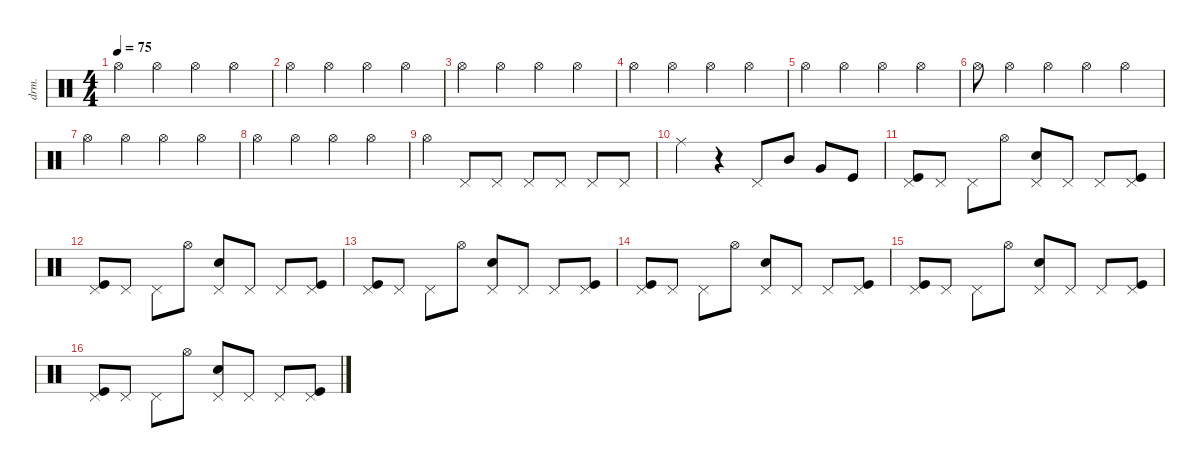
\defaultSystemsLayout 4
\hideDynamics
\bracketExtendMode nobrackets
\otherSystemsTrackNameOrientation horizontal
\track ("Drums" "drm.") {instrument percussion}
\staff {score}
\articulation defaults
\ts (4 4)
\tempo 75
\clef neutral
\ks c "Hi-Hat (open)".4{dy f beam Down} "Hi-Hat (open)".4{beam Down} "Hi-Hat (open)".4{beam Down} "Hi-Hat (open)".4{beam Down}
|
"Hi-Hat (open)".4{beam Down} "Hi-Hat (open)".4{beam Down} "Hi-Hat (open)".4{beam Down} "Hi-Hat (open)".4{beam Down} |
"Hi-Hat (open)".4{beam Down} "Hi-Hat (open)".4{beam Down} "Hi-Hat (open)".4{beam Down} "Hi-Hat (open)".4{beam Down} |
"Hi-Hat (open)".4{beam Down} "Hi-Hat (open)".4{beam Down} "Hi-Hat (open)".4{beam Down} "Hi-Hat (open)".4{beam Down} |
"Hi-Hat (open)".4{beam Down} "Hi-Hat (open)".4{beam Down} "Hi-Hat (open)".4{beam Down} "Hi-Hat (open)".4{beam Down} |
"Hi-Hat (open)".8{beam Down} "Hi-Hat (open)".4{beam Down} "Hi-Hat (open)".4{beam Down} "Hi-Hat (open)".4{beam Down} "Hi-Hat (open)".4{beam Down} |
"Hi-Hat (open)".4{beam Down} "Hi-Hat (open)".4{beam Down} "Hi-Hat (open)".4{beam Down} "Hi-Hat (open)".4{beam Down} |
"Hi-Hat (open)".4{beam Down} "Hi-Hat (open)".4{beam Down} "Hi-Hat (open)".4{beam Down} "Hi-Hat (open)".4{beam Down} |
"Hi-Hat (open)".4{beam Down} "Pedal Hi-Hat (hit)".8{beam Up} "Pedal Hi-Hat (hit)".8{beam Up} "Pedal Hi-Hat (hit)".8{beam Up} "Pedal Hi-Hat (hit)".8{beam Up} "Pedal Hi-Hat (hit)".8{beam Up} "Pedal Hi-Hat (hit)".8{beam Up} |
"Ride (middle)".4{beam Down} r.4{beam Down} "Pedal Hi-Hat (hit)".8{beam Up} "Mid Tom (hit)".8{beam Up} "Very Low Tom (hit)".8{beam Up} "Kick (hit)".8{beam Up} |
("Pedal Hi-Hat (hit)" "Kick (hit)").8{beam Up} "Pedal Hi-Hat (hit)".8{beam Up} "Pedal Hi-Hat (hit)".8{beam Down} "Hi-Hat (open)".8{beam Down} ("Snare (hit) 2" "Pedal Hi-Hat (hit)").8{beam Up} "Pedal Hi-Hat (hit)".8{beam Up} "Pedal Hi-Hat (hit)".8{beam Up} ("Kick (hit)" "Pedal Hi-Hat (hit)").8{beam Up} |
("Pedal Hi-Hat (hit)" "Kick (hit)").8{beam Up} "Pedal Hi-Hat (hit)".8{beam Up} "Pedal Hi-Hat (hit)".8{beam Down} "Hi-Hat (open)".8{beam Down} ("Snare (hit) 2" "Pedal Hi-Hat (hit)").8{beam Up} "Pedal Hi-Hat (hit)".8{beam Up} "Pedal Hi-Hat (hit)".8{beam Up} ("Kick (hit)" "Pedal Hi-Hat (hit)").8{beam Up} |
("Pedal Hi-Hat (hit)" "Kick (hit)").8{beam Up} "Pedal Hi-Hat (hit)".8{beam Up} "Pedal Hi-Hat (hit)".8{beam Down} "Hi-Hat (open)".8{beam Down} ("Snare (hit) 2" "Pedal Hi-Hat (hit)").8{beam Up} "Pedal Hi-Hat (hit)".8{beam Up} "Pedal Hi-Hat (hit)".8{beam Up} ("Kick (hit)" "Pedal Hi-Hat (hit)").8{beam Up} |
("Pedal Hi-Hat (hit)" "Kick (hit)").8{beam Up} "Pedal Hi-Hat (hit)".8{beam Up} "Pedal Hi-Hat (hit)".8{beam Down} "Hi-Hat (open)".8{beam Down} ("Snare (hit) 2" "Pedal Hi-Hat (hit)").8{beam Up} "Pedal Hi-Hat (hit)".8{beam Up} "Pedal Hi-Hat (hit)".8{beam Up} ("Kick (hit)" "Pedal Hi-Hat (hit)").8{beam Up} |
("Pedal Hi-Hat (hit)" "Kick (hit)").8{beam Up} "Pedal Hi-Hat (hit)".8{beam Up} "Pedal Hi-Hat (hit)".8{beam Down} "Hi-Hat (open)".8{beam Down} ("Snare (hit) 2" "Pedal Hi-Hat (hit)").8{beam Up} "Pedal Hi-Hat (hit)".8{beam Up} "Pedal Hi-Hat (hit)".8{beam Up} ("Kick (hit)" "Pedal Hi-Hat (hit)").8{beam Up} |
("Pedal Hi-Hat (hit)" "Kick (hit)").8{beam Up} "Pedal Hi-Hat (hit)".8{beam Up} "Pedal Hi-Hat (hit)".8{beam Down} "Hi-Hat (open)".8{beam Down} ("Snare (hit) 2" "Pedal Hi-Hat (hit)").8{beam Up} "Pedal Hi-Hat (hit)".8{beam Up} "Pedal Hi-Hat (hit)".8{beam Up} ("Kick (hit)" "Pedal Hi-Hat (hit)").8{beam Up}
